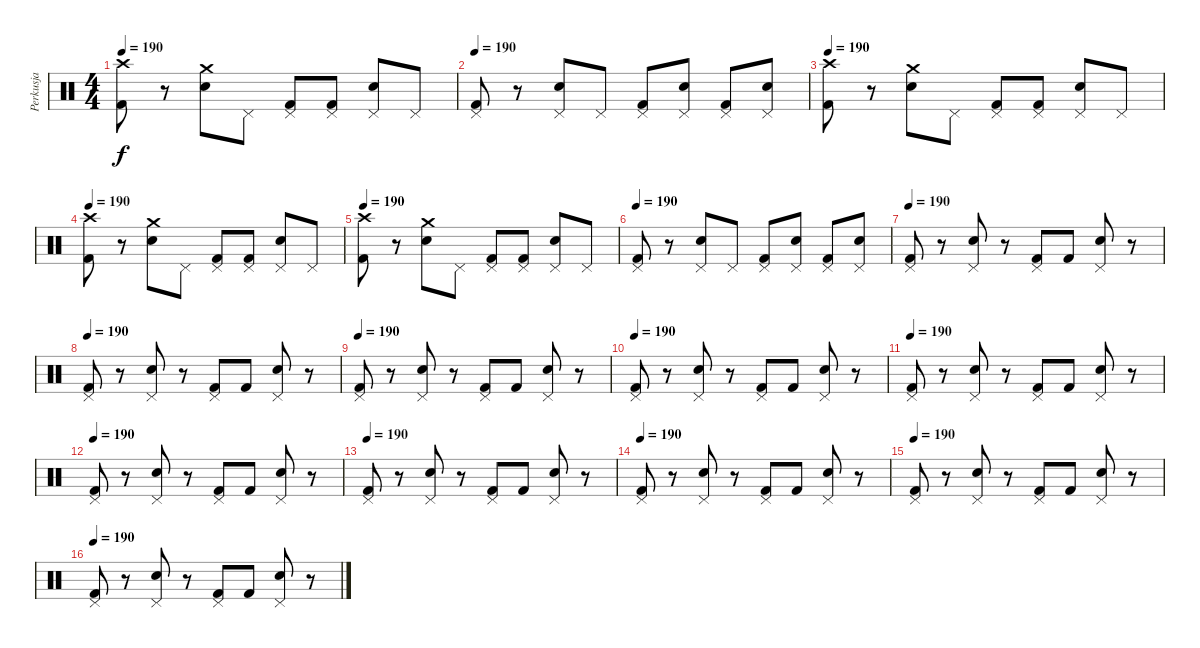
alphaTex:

\track ("Perkusja" "Perkusja") {instrument percussion}
\staff {score}
\articulation defaults
\ts (4 4)
\tempo 190
\clef neutral
\ks c
("Crash high (hit)" "Kick (hit) 2").8{dy f} r.8 ("Crash medium (hit)" "Snare (hit) 2").8 "Pedal Hi-Hat (hit)".8 ("Pedal Hi-Hat (hit)" "Kick (hit) 2").8 ("Pedal Hi-Hat (hit)" "Kick (hit) 2").8 ("Pedal Hi-Hat (hit)" "Snare (hit) 2").8 "Pedal Hi-Hat (hit)".8 |
\tempo 190
("Pedal Hi-Hat (hit)" "Kick (hit) 2").8 r.8 ("Pedal Hi-Hat (hit)" "Snare (hit) 2").8 "Pedal Hi-Hat (hit)".8 ("Pedal Hi-Hat (hit)" "Kick (hit) 2").8 ("Pedal Hi-Hat (hit)" "Snare (hit) 2").8 ("Pedal Hi-Hat (hit)" "Kick (hit) 2").8 ("Pedal Hi-Hat (hit)" "Snare (hit) 2").8 |
\tempo 190
("Crash high (hit)" "Kick (hit) 2").8 r.8 ("Crash medium (hit)" "Snare (hit) 2").8 "Pedal Hi-Hat (hit)".8 ("Pedal Hi-Hat (hit)" "Kick (hit) 2").8 ("Pedal Hi-Hat (hit)" "Kick (hit) 2").8 ("Pedal Hi-Hat (hit)" "Snare (hit) 2").8 "Pedal Hi-Hat (hit)".8 |
\tempo 190
("Crash high (hit)" "Kick (hit) 2").8 r.8 ("Crash medium (hit)" "Snare (hit) 2").8 "Pedal Hi-Hat (hit)".8 ("Pedal Hi-Hat (hit)" "Kick (hit) 2").8 ("Pedal Hi-Hat (hit)" "Kick (hit) 2").8 ("Pedal Hi-Hat (hit)" "Snare (hit) 2").8 "Pedal Hi-Hat (hit)".8 |
\tempo 190
("Crash high (hit)" "Kick (hit) 2").8 r.8 ("Crash medium (hit)" "Snare (hit) 2").8 "Pedal Hi-Hat (hit)".8 ("Pedal Hi-Hat (hit)" "Kick (hit) 2").8 ("Pedal Hi-Hat (hit)" "Kick (hit) 2").8 ("Pedal Hi-Hat (hit)" "Snare (hit) 2").8 "Pedal Hi-Hat (hit)".8 |
\tempo 190
("Pedal Hi-Hat (hit)" "Kick (hit) 2").8 r.8 ("Pedal Hi-Hat (hit)" "Snare (hit) 2").8 "Pedal Hi-Hat (hit)".8 ("Pedal Hi-Hat (hit)" "Kick (hit) 2").8 ("Pedal Hi-Hat (hit)" "Snare (hit) 2").8 ("Pedal Hi-Hat (hit)" "Kick (hit) 2").8 ("Pedal Hi-Hat (hit)" "Snare (hit) 2").8 |
\tempo 190
("Pedal Hi-Hat (hit)" "Kick (hit) 2").8 r.8 ("Pedal Hi-Hat (hit)" "Snare (hit) 2").8 r.8 ("Pedal Hi-Hat (hit)" "Kick (hit) 2").8 "Kick (hit) 2".8 ("Pedal Hi-Hat (hit)" "Snare (hit) 2").8 r.8 |
\tempo 190
("Pedal Hi-Hat (hit)" "Kick (hit) 2").8 r.8 ("Pedal Hi-Hat (hit)" "Snare (hit) 2").8 r.8 ("Pedal Hi-Hat (hit)" "Kick (hit) 2").8 "Kick (hit) 2".8 ("Pedal Hi-Hat (hit)" "Snare (hit) 2").8 r.8 |
\tempo 190
("Pedal Hi-Hat (hit)" "Kick (hit) 2").8 r.8 ("Pedal Hi-Hat (hit)" "Snare (hit) 2").8 r.8 ("Pedal Hi-Hat (hit)" "Kick (hit) 2").8 "Kick (hit) 2".8 ("Pedal Hi-Hat (hit)" "Snare (hit) 2").8 r.8 |
\tempo 190
("Pedal Hi-Hat (hit)" "Kick (hit) 2").8 r.8 ("Pedal Hi-Hat (hit)" "Snare (hit) 2").8 r.8 ("Pedal Hi-Hat (hit)" "Kick (hit) 2").8 "Kick (hit) 2".8 ("Pedal Hi-Hat (hit)" "Snare (hit) 2").8 r.8 |
\tempo 190
("Pedal Hi-Hat (hit)" "Kick (hit) 2").8 r.8 ("Pedal Hi-Hat (hit)" "Snare (hit) 2").8 r.8 ("Pedal Hi-Hat (hit)" "Kick (hit) 2").8 "Kick (hit) 2".8 ("Pedal Hi-Hat (hit)" "Snare (hit) 2").8 r.8 |
\tempo 190
("Pedal Hi-Hat (hit)" "Kick (hit) 2").8 r.8 ("Pedal Hi-Hat (hit)" "Snare (hit) 2").8 r.8 ("Pedal Hi-Hat (hit)" "Kick (hit) 2").8 "Kick (hit) 2".8 ("Pedal Hi-Hat (hit)" "Snare (hit) 2").8 r.8 |
\tempo 190
("Pedal Hi-Hat (hit)" "Kick (hit) 2").8 r.8 ("Pedal Hi-Hat (hit)" "Snare (hit) 2").8 r.8 ("Pedal Hi-Hat (hit)" "Kick (hit) 2").8 "Kick (hit) 2".8 ("Pedal Hi-Hat (hit)" "Snare (hit) 2").8 r.8 |
\tempo 190
("Pedal Hi-Hat (hit)" "Kick (hit) 2").8 r.8 ("Pedal Hi-Hat (hit)" "Snare (hit) 2").8 r.8 ("Pedal Hi-Hat (hit)" "Kick (hit) 2").8 "Kick (hit) 2".8 ("Pedal Hi-Hat (hit)" "Snare (hit) 2").8 r.8 |
\tempo 190
("Pedal Hi-Hat (hit)" "Kick (hit) 2").8 r.8 ("Pedal Hi-Hat (hit)" "Snare (hit) 2").8 r.8 ("Pedal Hi-Hat (hit)" "Kick (hit) 2").8 "Kick (hit) 2".8 ("Pedal Hi-Hat (hit)" "Snare (hit) 2").8 r.8 |
\tempo 190
("Pedal Hi-Hat (hit)" "Kick (hit) 2").8 r.8 ("Pedal Hi-Hat (hit)" "Snare (hit) 2").8 r.8 ("Pedal Hi-Hat (hit)" "Kick (hit) 2").8 "Kick (hit) 2".8 ("Pedal Hi-Hat (hit)" "Snare (hit) 2").8 r.8
